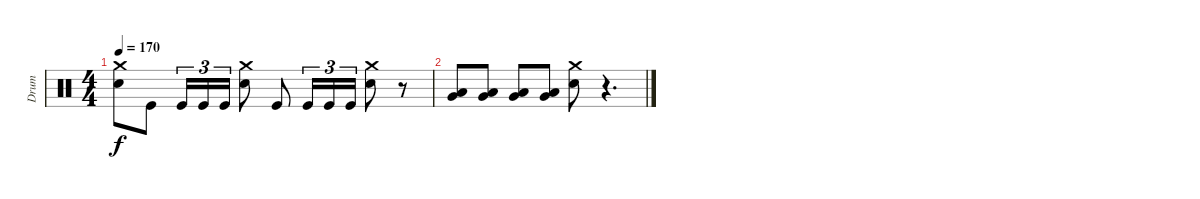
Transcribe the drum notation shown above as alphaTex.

\track ("Drum" "Drum") {instrument percussion}
\staff {score}
\articulation defaults
\ts (4 4)
\tempo 170
\clef neutral
\ks c
("Electric Snare (hit)" "Crash medium (hit)").8{dy f} "Kick (hit)".8 "Kick (hit)".16{tu (3 2)} "Kick (hit)".16{tu (3 2)} "Kick (hit)".16{tu (3 2)} ("Electric Snare (hit)" "Crash medium (hit)").8 "Kick (hit)".8 "Kick (hit)".16{tu (3 2)} "Kick (hit)".16{tu (3 2)} "Kick (hit)".16{tu (3 2)} ("Electric Snare (hit)" "Crash medium (hit)").8 r.8 |
("Very Low Tom (hit)" "Low Tom (hit)").8 ("Very Low Tom (hit)" "Low Tom (hit)").8 ("Very Low Tom (hit)" "Low Tom (hit)").8 ("Very Low Tom (hit)" "Low Tom (hit)").8 ("Electric Snare (hit)" "Crash medium (hit)").8 r.4{d}
